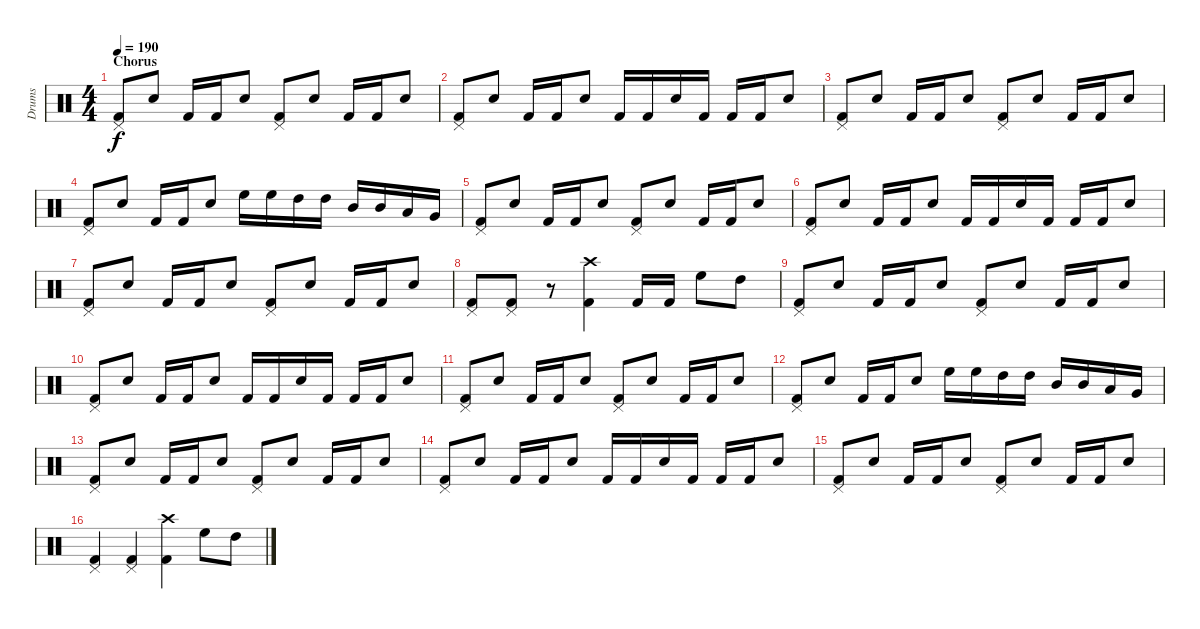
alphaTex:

\track ("Drums" "Drums") {instrument percussion}
\staff {score}
\articulation defaults
\ts (4 4)
\section ("" "Chorus")
\tempo 190
\clef neutral
\ks c
("Pedal Hi-Hat (hit)" "Kick (hit) 2").8{dy f} "Electric Snare (hit)".8 "Kick (hit) 2".16 "Kick (hit) 2".16 "Electric Snare (hit)".8 ("Pedal Hi-Hat (hit)" "Kick (hit) 2").8 "Electric Snare (hit)".8 "Kick (hit) 2".16 "Kick (hit) 2".16 "Electric Snare (hit)".8 |
("Pedal Hi-Hat (hit)" "Kick (hit) 2").8 "Electric Snare (hit)".8 "Kick (hit) 2".16 "Kick (hit) 2".16 "Electric Snare (hit)".8 "Kick (hit) 2".16 "Kick (hit) 2".16 "Electric Snare (hit)".16 "Kick (hit) 2".16 "Kick (hit) 2".16 "Kick (hit) 2".16 "Electric Snare (hit)".8 |
("Pedal Hi-Hat (hit)" "Kick (hit) 2").8 "Electric Snare (hit)".8 "Kick (hit) 2".16 "Kick (hit) 2".16 "Electric Snare (hit)".8 ("Pedal Hi-Hat (hit)" "Kick (hit) 2").8 "Electric Snare (hit)".8 "Kick (hit) 2".16 "Kick (hit) 2".16 "Electric Snare (hit)".8 |
("Pedal Hi-Hat (hit)" "Kick (hit) 2").8 "Electric Snare (hit)".8 "Kick (hit) 2".16 "Kick (hit) 2".16 "Electric Snare (hit)".8 "High Floor Tom (hit)".16 "High Floor Tom (hit)".16 "High Tom (hit)".16 "High Tom (hit)".16 "Mid Tom (hit)".16 "Mid Tom (hit)".16 "Low Tom (hit)".16 "Very Low Tom (hit)".16 |
("Pedal Hi-Hat (hit)" "Kick (hit) 2").8 "Electric Snare (hit)".8 "Kick (hit) 2".16 "Kick (hit) 2".16 "Electric Snare (hit)".8 ("Pedal Hi-Hat (hit)" "Kick (hit) 2").8 "Electric Snare (hit)".8 "Kick (hit) 2".16 "Kick (hit) 2".16 "Electric Snare (hit)".8 |
("Pedal Hi-Hat (hit)" "Kick (hit) 2").8 "Electric Snare (hit)".8 "Kick (hit) 2".16 "Kick (hit) 2".16 "Electric Snare (hit)".8 "Kick (hit) 2".16 "Kick (hit) 2".16 "Electric Snare (hit)".16 "Kick (hit) 2".16 "Kick (hit) 2".16 "Kick (hit) 2".16 "Electric Snare (hit)".8 |
("Pedal Hi-Hat (hit)" "Kick (hit) 2").8 "Electric Snare (hit)".8 "Kick (hit) 2".16 "Kick (hit) 2".16 "Electric Snare (hit)".8 ("Pedal Hi-Hat (hit)" "Kick (hit) 2").8 "Electric Snare (hit)".8 "Kick (hit) 2".16 "Kick (hit) 2".16 "Electric Snare (hit)".8 |
("Pedal Hi-Hat (hit)" "Kick (hit) 2").8 ("Pedal Hi-Hat (hit)" "Kick (hit) 2").8 r.8 ("Crash high (hit)" "Kick (hit) 2").4 "Kick (hit) 2".16 "Kick (hit) 2".16 "High Floor Tom (hit)".8 "High Tom (hit)".8 |
("Pedal Hi-Hat (hit)" "Kick (hit) 2").8 "Electric Snare (hit)".8 "Kick (hit) 2".16 "Kick (hit) 2".16 "Electric Snare (hit)".8 ("Pedal Hi-Hat (hit)" "Kick (hit) 2").8 "Electric Snare (hit)".8 "Kick (hit) 2".16 "Kick (hit) 2".16 "Electric Snare (hit)".8 |
("Pedal Hi-Hat (hit)" "Kick (hit) 2").8 "Electric Snare (hit)".8 "Kick (hit) 2".16 "Kick (hit) 2".16 "Electric Snare (hit)".8 "Kick (hit) 2".16 "Kick (hit) 2".16 "Electric Snare (hit)".16 "Kick (hit) 2".16 "Kick (hit) 2".16 "Kick (hit) 2".16 "Electric Snare (hit)".8 |
("Pedal Hi-Hat (hit)" "Kick (hit) 2").8 "Electric Snare (hit)".8 "Kick (hit) 2".16 "Kick (hit) 2".16 "Electric Snare (hit)".8 ("Pedal Hi-Hat (hit)" "Kick (hit) 2").8 "Electric Snare (hit)".8 "Kick (hit) 2".16 "Kick (hit) 2".16 "Electric Snare (hit)".8 |
("Pedal Hi-Hat (hit)" "Kick (hit) 2").8 "Electric Snare (hit)".8 "Kick (hit) 2".16 "Kick (hit) 2".16 "Electric Snare (hit)".8 "High Floor Tom (hit)".16 "High Floor Tom (hit)".16 "High Tom (hit)".16 "High Tom (hit)".16 "Mid Tom (hit)".16 "Mid Tom (hit)".16 "Low Tom (hit)".16 "Very Low Tom (hit)".16 |
("Pedal Hi-Hat (hit)" "Kick (hit) 2").8 "Electric Snare (hit)".8 "Kick (hit) 2".16 "Kick (hit) 2".16 "Electric Snare (hit)".8 ("Pedal Hi-Hat (hit)" "Kick (hit) 2").8 "Electric Snare (hit)".8 "Kick (hit) 2".16 "Kick (hit) 2".16 "Electric Snare (hit)".8 |
("Pedal Hi-Hat (hit)" "Kick (hit) 2").8 "Electric Snare (hit)".8 "Kick (hit) 2".16 "Kick (hit) 2".16 "Electric Snare (hit)".8 "Kick (hit) 2".16 "Kick (hit) 2".16 "Electric Snare (hit)".16 "Kick (hit) 2".16 "Kick (hit) 2".16 "Kick (hit) 2".16 "Electric Snare (hit)".8 |
("Pedal Hi-Hat (hit)" "Kick (hit) 2").8 "Electric Snare (hit)".8 "Kick (hit) 2".16 "Kick (hit) 2".16 "Electric Snare (hit)".8 ("Pedal Hi-Hat (hit)" "Kick (hit) 2").8 "Electric Snare (hit)".8 "Kick (hit) 2".16 "Kick (hit) 2".16 "Electric Snare (hit)".8 |
("Pedal Hi-Hat (hit)" "Kick (hit) 2").4 ("Pedal Hi-Hat (hit)" "Kick (hit) 2").4 ("Crash high (hit)" "Kick (hit) 2").4 "High Floor Tom (hit)".8 "High Tom (hit)".8
